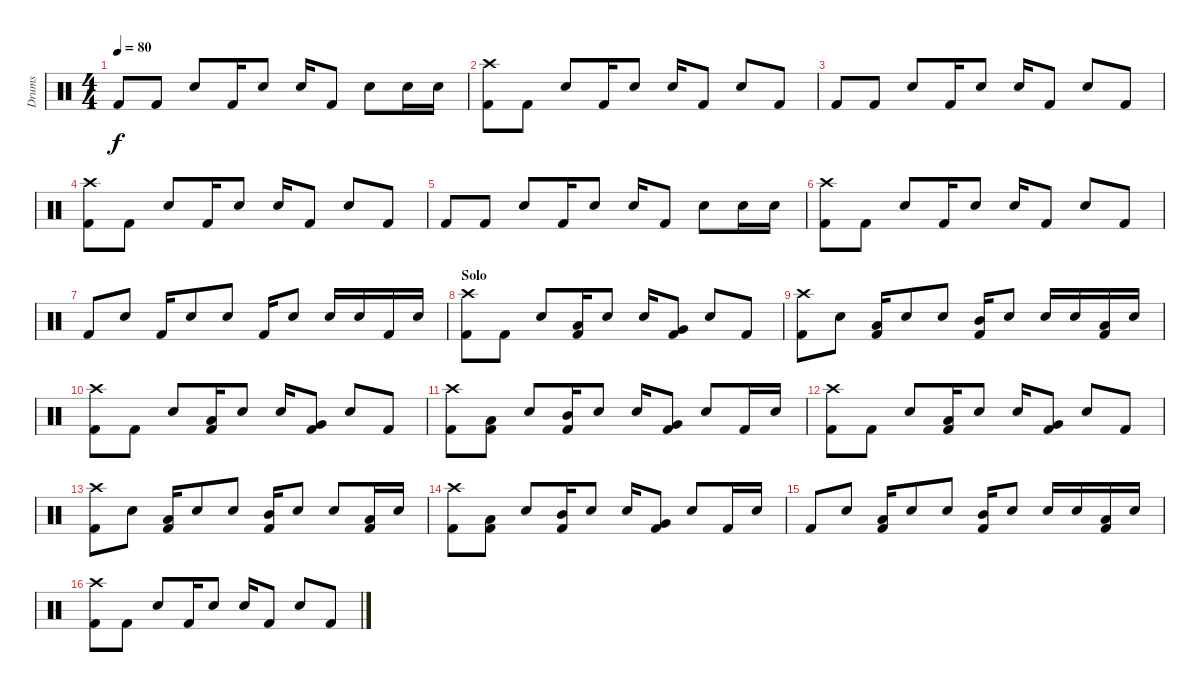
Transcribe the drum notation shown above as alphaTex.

\track ("Drums" "Drums") {instrument percussion}
\staff {score}
\articulation defaults
\ts (4 4)
\tempo 80
\clef neutral
\ks c "Kick (hit) 2".8{dy f} "Kick (hit) 2".8 "Electric Snare (hit)".8 "Kick (hit) 2".16 "Electric Snare (hit)".8 "Electric Snare (hit)".16 "Kick (hit) 2".8 "Electric Snare (hit)".8 "Electric Snare (hit)".16 "Electric Snare (hit)".16
|
("Crash high (hit)" "Kick (hit) 2").8 "Kick (hit) 2".8 "Electric Snare (hit)".8 "Kick (hit) 2".16 "Electric Snare (hit)".8 "Electric Snare (hit)".16 "Kick (hit) 2".8 "Electric Snare (hit)".8 "Kick (hit) 2".8 |
"Kick (hit) 2".8 "Kick (hit) 2".8 "Electric Snare (hit)".8 "Kick (hit) 2".16 "Electric Snare (hit)".8 "Electric Snare (hit)".16 "Kick (hit) 2".8 "Electric Snare (hit)".8 "Kick (hit) 2".8 |
("Crash high (hit)" "Kick (hit) 2").8 "Kick (hit) 2".8 "Electric Snare (hit)".8 "Kick (hit) 2".16 "Electric Snare (hit)".8 "Electric Snare (hit)".16 "Kick (hit) 2".8 "Electric Snare (hit)".8 "Kick (hit) 2".8 |
"Kick (hit) 2".8 "Kick (hit) 2".8 "Electric Snare (hit)".8 "Kick (hit) 2".16 "Electric Snare (hit)".8 "Electric Snare (hit)".16 "Kick (hit) 2".8 "Electric Snare (hit)".8 "Electric Snare (hit)".16 "Electric Snare (hit)".16 |
("Crash high (hit)" "Kick (hit) 2").8 "Kick (hit) 2".8 "Electric Snare (hit)".8 "Kick (hit) 2".16 "Electric Snare (hit)".8 "Electric Snare (hit)".16 "Kick (hit) 2".8 "Electric Snare (hit)".8 "Kick (hit) 2".8 |
"Kick (hit) 2".8 "Electric Snare (hit)".8 "Kick (hit) 2".16 "Electric Snare (hit)".8 "Electric Snare (hit)".8 "Kick (hit) 2".16 "Electric Snare (hit)".8 "Electric Snare (hit)".16 "Electric Snare (hit)".16 "Kick (hit) 2".16 "Electric Snare (hit)".16 |
\section ("" "Solo")
("Crash high (hit)" "Kick (hit) 2").8 "Kick (hit) 2".8 "Electric Snare (hit)".8 ("Low Floor Tom (hit)" "Kick (hit) 2").16 "Electric Snare (hit)".8 "Electric Snare (hit)".16 ("Very Low Tom (hit)" "Kick (hit) 2").8 "Electric Snare (hit)".8 "Kick (hit) 2".8 |
("Crash high (hit)" "Kick (hit) 2").8 "Electric Snare (hit)".8 ("Low Tom (hit)" "Kick (hit) 2").16 "Electric Snare (hit)".8 "Electric Snare (hit)".8 ("Mid Tom (hit)" "Kick (hit) 2").16 "Electric Snare (hit)".8 "Electric Snare (hit)".16 "Electric Snare (hit)".16 ("Low Floor Tom (hit)" "Kick (hit) 2").16 "Electric Snare (hit)".16 |
("Crash high (hit)" "Kick (hit) 2").8 "Kick (hit) 2".8 "Electric Snare (hit)".8 ("Low Floor Tom (hit)" "Kick (hit) 2").16 "Electric Snare (hit)".8 "Electric Snare (hit)".16 ("Very Low Tom (hit)" "Kick (hit) 2").8 "Electric Snare (hit)".8 "Kick (hit) 2".8 |
("Crash high (hit)" "Kick (hit) 2").8 ("Low Tom (hit)" "Kick (hit) 2").8 "Electric Snare (hit)".8 ("Mid Tom (hit)" "Kick (hit) 2").16 "Electric Snare (hit)".8 "Electric Snare (hit)".16 ("Very Low Tom (hit)" "Kick (hit) 2").8 "Electric Snare (hit)".8 "Kick (hit) 2".16 "Electric Snare (hit)".16 |
("Crash high (hit)" "Kick (hit) 2").8 "Kick (hit) 2".8 "Electric Snare (hit)".8 ("Low Floor Tom (hit)" "Kick (hit) 2").16 "Electric Snare (hit)".8 "Electric Snare (hit)".16 ("Very Low Tom (hit)" "Kick (hit) 2").8 "Electric Snare (hit)".8 "Kick (hit) 2".8 |
("Crash high (hit)" "Kick (hit) 2").8 "Electric Snare (hit)".8 ("Low Tom (hit)" "Kick (hit) 2").16 "Electric Snare (hit)".8 "Electric Snare (hit)".8 ("Mid Tom (hit)" "Kick (hit) 2").16 "Electric Snare (hit)".8 "Electric Snare (hit)".8 ("Low Floor Tom (hit)" "Kick (hit) 2").16 "Electric Snare (hit)".16 |
("Crash high (hit)" "Kick (hit) 2").8 ("Low Tom (hit)" "Kick (hit) 2").8 "Electric Snare (hit)".8 ("Mid Tom (hit)" "Kick (hit) 2").16 "Electric Snare (hit)".8 "Electric Snare (hit)".16 ("Very Low Tom (hit)" "Kick (hit) 2").8 "Electric Snare (hit)".8 "Kick (hit) 2".16 "Electric Snare (hit)".16 |
"Kick (hit) 2".8 "Electric Snare (hit)".8 ("Low Tom (hit)" "Kick (hit) 2").16 "Electric Snare (hit)".8 "Electric Snare (hit)".8 ("Mid Tom (hit)" "Kick (hit) 2").16 "Electric Snare (hit)".8 "Electric Snare (hit)".16 "Electric Snare (hit)".16 ("Low Floor Tom (hit)" "Kick (hit) 2").16 "Electric Snare (hit)".16 |
("Crash high (hit)" "Kick (hit) 2").8 "Kick (hit) 2".8 "Electric Snare (hit)".8 "Kick (hit) 2".16 "Electric Snare (hit)".8 "Electric Snare (hit)".16 "Kick (hit) 2".8 "Electric Snare (hit)".8 "Kick (hit) 2".8
